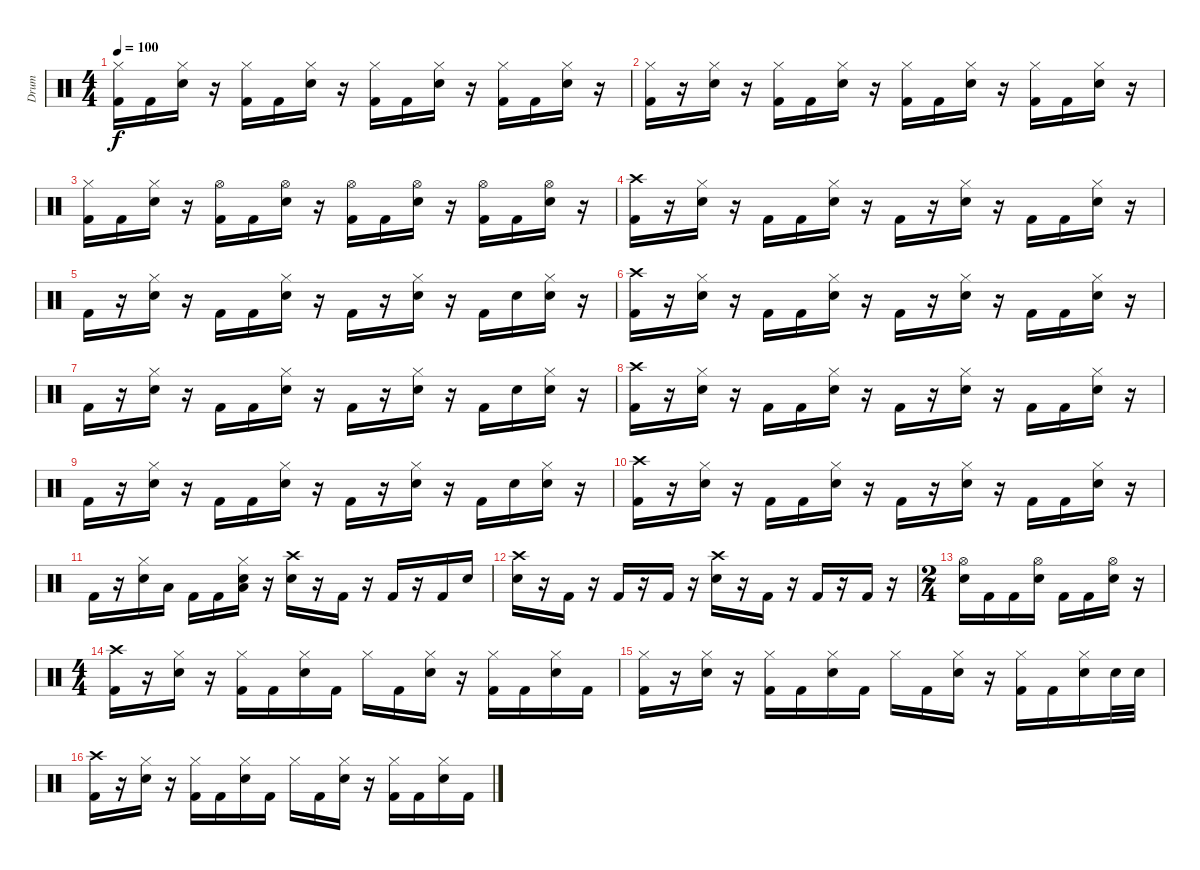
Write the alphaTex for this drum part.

\track ("Drum" "Drum") {instrument percussion}
\staff {score}
\articulation defaults
\ts (4 4)
\tempo 100
\clef neutral
\ks c
("Hi-Hat (closed)" "Kick (hit) 2").16{dy f} "Kick (hit) 2".16 ("Hi-Hat (closed)" "Electric Snare (hit)").16 r.16 ("Hi-Hat (closed)" "Kick (hit) 2").16 "Kick (hit) 2".16 ("Hi-Hat (closed)" "Electric Snare (hit)").16 r.16 ("Hi-Hat (closed)" "Kick (hit) 2").16 "Kick (hit) 2".16 ("Hi-Hat (closed)" "Electric Snare (hit)").16 r.16 ("Hi-Hat (closed)" "Kick (hit) 2").16 "Kick (hit) 2".16 ("Hi-Hat (closed)" "Electric Snare (hit)").16 r.16 |
("Hi-Hat (closed)" "Kick (hit) 2").16 r.16 ("Hi-Hat (closed)" "Electric Snare (hit)").16 r.16 ("Hi-Hat (closed)" "Kick (hit) 2").16 "Kick (hit) 2".16 ("Hi-Hat (closed)" "Electric Snare (hit)").16 r.16 ("Hi-Hat (closed)" "Kick (hit) 2").16 "Kick (hit) 2".16 ("Hi-Hat (closed)" "Electric Snare (hit)").16 r.16 ("Hi-Hat (closed)" "Kick (hit) 2").16 "Kick (hit) 2".16 ("Hi-Hat (closed)" "Electric Snare (hit)").16 r.16 |
("Hi-Hat (closed)" "Kick (hit) 2").16 "Kick (hit) 2".16 ("Hi-Hat (closed)" "Electric Snare (hit)").16 r.16 ("Hi-Hat (open)" "Kick (hit) 2").16 "Kick (hit) 2".16 ("Hi-Hat (open)" "Electric Snare (hit)").16 r.16 ("Hi-Hat (open)" "Kick (hit) 2").16 "Kick (hit) 2".16 ("Hi-Hat (open)" "Electric Snare (hit)").16 r.16 ("Hi-Hat (open)" "Kick (hit) 2").16 "Kick (hit) 2".16 ("Hi-Hat (open)" "Electric Snare (hit)").16 r.16 |
("Crash high (hit)" "Kick (hit) 2").16 r.16 ("Hi-Hat (closed)" "Electric Snare (hit)").16 r.16 "Kick (hit) 2".16 "Kick (hit) 2".16 ("Hi-Hat (closed)" "Electric Snare (hit)").16 r.16 "Kick (hit) 2".16 r.16 ("Hi-Hat (closed)" "Electric Snare (hit)").16 r.16 "Kick (hit) 2".16 "Kick (hit) 2".16 ("Hi-Hat (closed)" "Electric Snare (hit)").16 r.16 |
"Kick (hit) 2".16 r.16 ("Hi-Hat (closed)" "Electric Snare (hit)").16 r.16 "Kick (hit) 2".16 "Kick (hit) 2".16 ("Hi-Hat (closed)" "Electric Snare (hit)").16 r.16 "Kick (hit) 2".16 r.16 ("Hi-Hat (closed)" "Electric Snare (hit)").16 r.16 "Kick (hit) 2".16 "Electric Snare (hit)".16 ("Hi-Hat (closed)" "Electric Snare (hit)").16 r.16 |
("Crash high (hit)" "Kick (hit) 2").16 r.16 ("Hi-Hat (closed)" "Electric Snare (hit)").16 r.16 "Kick (hit) 2".16 "Kick (hit) 2".16 ("Hi-Hat (closed)" "Electric Snare (hit)").16 r.16 "Kick (hit) 2".16 r.16 ("Hi-Hat (closed)" "Electric Snare (hit)").16 r.16 "Kick (hit) 2".16 "Kick (hit) 2".16 ("Hi-Hat (closed)" "Electric Snare (hit)").16 r.16 |
"Kick (hit) 2".16 r.16 ("Hi-Hat (closed)" "Electric Snare (hit)").16 r.16 "Kick (hit) 2".16 "Kick (hit) 2".16 ("Hi-Hat (closed)" "Electric Snare (hit)").16 r.16 "Kick (hit) 2".16 r.16 ("Hi-Hat (closed)" "Electric Snare (hit)").16 r.16 "Kick (hit) 2".16 "Electric Snare (hit)".16 ("Hi-Hat (closed)" "Electric Snare (hit)").16 r.16 |
("Crash high (hit)" "Kick (hit) 2").16 r.16 ("Hi-Hat (closed)" "Electric Snare (hit)").16 r.16 "Kick (hit) 2".16 "Kick (hit) 2".16 ("Hi-Hat (closed)" "Electric Snare (hit)").16 r.16 "Kick (hit) 2".16 r.16 ("Hi-Hat (closed)" "Electric Snare (hit)").16 r.16 "Kick (hit) 2".16 "Kick (hit) 2".16 ("Hi-Hat (closed)" "Electric Snare (hit)").16 r.16 |
"Kick (hit) 2".16 r.16 ("Hi-Hat (closed)" "Electric Snare (hit)").16 r.16 "Kick (hit) 2".16 "Kick (hit) 2".16 ("Hi-Hat (closed)" "Electric Snare (hit)").16 r.16 "Kick (hit) 2".16 r.16 ("Hi-Hat (closed)" "Electric Snare (hit)").16 r.16 "Kick (hit) 2".16 "Electric Snare (hit)".16 ("Hi-Hat (closed)" "Electric Snare (hit)").16 r.16 |
("Crash high (hit)" "Kick (hit) 2").16 r.16 ("Hi-Hat (closed)" "Electric Snare (hit)").16 r.16 "Kick (hit) 2".16 "Kick (hit) 2".16 ("Hi-Hat (closed)" "Electric Snare (hit)").16 r.16 "Kick (hit) 2".16 r.16 ("Hi-Hat (closed)" "Electric Snare (hit)").16 r.16 "Kick (hit) 2".16 "Kick (hit) 2".16 ("Hi-Hat (closed)" "Electric Snare (hit)").16 r.16 |
"Kick (hit) 2".16 r.16 ("Hi-Hat (closed)" "Electric Snare (hit)").16 "Low Tom (hit)".16 "Kick (hit) 2".16 "Kick (hit) 2".16 ("Hi-Hat (closed)" "Low Tom (hit)" "Electric Snare (hit)").16 r.16 ("Crash high (hit)" "Electric Snare (hit)").16 r.16 "Kick (hit) 2".16 r.16 "Kick (hit) 2".16 r.16 "Kick (hit) 2".16 "Electric Snare (hit)".16 |
("Crash high (hit)" "Electric Snare (hit)").16 r.16 "Kick (hit) 2".16 r.16 "Kick (hit) 2".16 r.16 "Kick (hit) 2".16 r.16 ("Crash high (hit)" "Electric Snare (hit)").16 r.16 "Kick (hit) 2".16 r.16 "Kick (hit) 2".16 r.16 "Kick (hit) 2".16 r.16 |
\ts (2 4)
("Hi-Hat (open)" "Electric Snare (hit)").16 "Kick (hit) 2".16 "Kick (hit) 2".16 ("Hi-Hat (open)" "Electric Snare (hit)").16 "Kick (hit) 2".16 "Kick (hit) 2".16 ("Hi-Hat (open)" "Electric Snare (hit)").16 r.16 |
\ts (4 4)
("Crash high (hit)" "Kick (hit) 2").16 r.16 ("Hi-Hat (closed)" "Electric Snare (hit)").16 r.16 ("Hi-Hat (closed)" "Kick (hit) 2").16 "Kick (hit) 2".16 ("Hi-Hat (closed)" "Electric Snare (hit)").16 "Kick (hit) 2".16 "Hi-Hat (closed)".16 "Kick (hit) 2".16 ("Hi-Hat (closed)" "Electric Snare (hit)").16 r.16 ("Hi-Hat (closed)" "Kick (hit) 2").16 "Kick (hit) 2".16 ("Hi-Hat (closed)" "Electric Snare (hit)").16 "Kick (hit) 2".16 |
("Hi-Hat (closed)" "Kick (hit) 2").16 r.16 ("Hi-Hat (closed)" "Electric Snare (hit)").16 r.16 ("Hi-Hat (closed)" "Kick (hit) 2").16 "Kick (hit) 2".16 ("Hi-Hat (closed)" "Electric Snare (hit)").16 "Kick (hit) 2".16 "Hi-Hat (closed)".16 "Kick (hit) 2".16 ("Hi-Hat (closed)" "Electric Snare (hit)").16 r.16 ("Hi-Hat (closed)" "Kick (hit) 2").16 "Kick (hit) 2".16 ("Hi-Hat (closed)" "Electric Snare (hit)").16 "Electric Snare (hit)".32 "Electric Snare (hit)".32 |
("Crash high (hit)" "Kick (hit) 2").16 r.16 ("Hi-Hat (closed)" "Electric Snare (hit)").16 r.16 ("Hi-Hat (closed)" "Kick (hit) 2").16 "Kick (hit) 2".16 ("Hi-Hat (closed)" "Electric Snare (hit)").16 "Kick (hit) 2".16 "Hi-Hat (closed)".16 "Kick (hit) 2".16 ("Hi-Hat (closed)" "Electric Snare (hit)").16 r.16 ("Hi-Hat (closed)" "Kick (hit) 2").16 "Kick (hit) 2".16 ("Hi-Hat (closed)" "Electric Snare (hit)").16 "Kick (hit) 2".16
